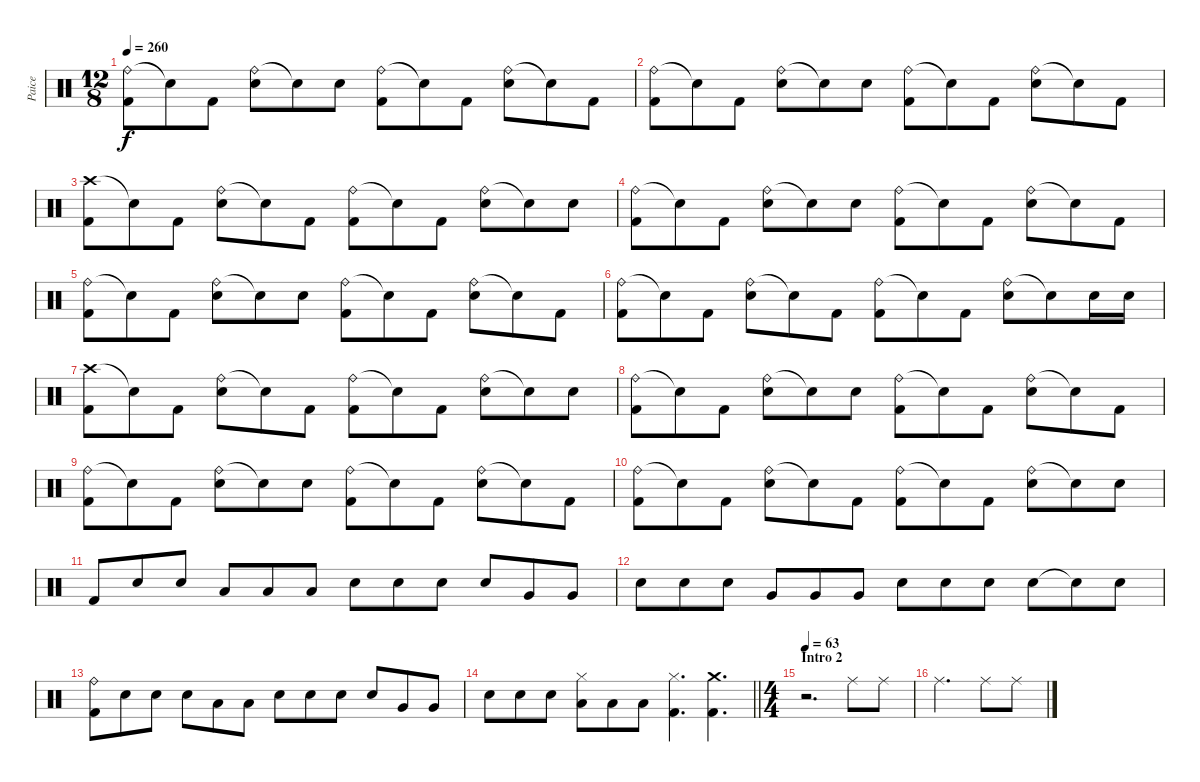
\track ("Paice" "Paice") {instrument percussion}
\staff {score}
\articulation defaults
\ts (12 8)
\tempo 260
\clef neutral
\ks c
("Ride (bell)" "Kick (hit) 2").8{dy f} "Snare (hit)"{t}.8 "Kick (hit) 2".8 ("Ride (bell)" "Electric Snare (hit)").8 "Snare (hit)"{t}.8 "Electric Snare (hit)".8 ("Ride (bell)" "Kick (hit) 2").8 "Snare (hit)"{t}.8 "Kick (hit) 2".8 ("Ride (bell)" "Electric Snare (hit)").8 "Snare (hit)"{t}.8 "Kick (hit) 2".8 |
("Ride (bell)" "Kick (hit) 2").8 "Snare (hit)"{t}.8 "Kick (hit) 2".8 ("Ride (bell)" "Electric Snare (hit)").8 "Snare (hit)"{t}.8 "Electric Snare (hit)".8 ("Ride (bell)" "Kick (hit) 2").8 "Snare (hit)"{t}.8 "Kick (hit) 2".8 ("Ride (bell)" "Electric Snare (hit)").8 "Snare (hit)"{t}.8 "Kick (hit) 2".8 |
("Crash high (hit)" "Kick (hit) 2").8 "Snare (hit)"{t}.8 "Kick (hit) 2".8 ("Ride (bell)" "Electric Snare (hit)").8 "Snare (hit)"{t}.8 "Kick (hit) 2".8 ("Ride (bell)" "Kick (hit) 2").8 "Snare (hit)"{t}.8 "Kick (hit) 2".8 ("Ride (bell)" "Electric Snare (hit)").8 "Snare (hit)"{t}.8 "Electric Snare (hit)".8 |
("Ride (bell)" "Kick (hit) 2").8 "Snare (hit)"{t}.8 "Kick (hit) 2".8 ("Ride (bell)" "Electric Snare (hit)").8 "Snare (hit)"{t}.8 "Electric Snare (hit)".8 ("Ride (bell)" "Kick (hit) 2").8 "Snare (hit)"{t}.8 "Kick (hit) 2".8 ("Ride (bell)" "Electric Snare (hit)").8 "Snare (hit)"{t}.8 "Kick (hit) 2".8 |
("Ride (bell)" "Kick (hit) 2").8 "Snare (hit)"{t}.8 "Kick (hit) 2".8 ("Ride (bell)" "Electric Snare (hit)").8 "Snare (hit)"{t}.8 "Electric Snare (hit)".8 ("Ride (bell)" "Kick (hit) 2").8 "Snare (hit)"{t}.8 "Kick (hit) 2".8 ("Ride (bell)" "Electric Snare (hit)").8 "Snare (hit)"{t}.8 "Kick (hit) 2".8 |
("Ride (bell)" "Kick (hit) 2").8 "Snare (hit)"{t}.8 "Kick (hit) 2".8 ("Ride (bell)" "Electric Snare (hit)").8 "Snare (hit)"{t}.8 "Kick (hit) 2".8 ("Ride (bell)" "Kick (hit) 2").8 "Snare (hit)"{t}.8 "Kick (hit) 2".8 ("Ride (bell)" "Electric Snare (hit)").8 "Snare (hit)"{t}.8 "Electric Snare (hit)".16 "Electric Snare (hit)".16 |
("Crash high (hit)" "Kick (hit) 2").8 "Snare (hit)"{t}.8 "Kick (hit) 2".8 ("Ride (bell)" "Electric Snare (hit)").8 "Snare (hit)"{t}.8 "Kick (hit) 2".8 ("Ride (bell)" "Kick (hit) 2").8 "Snare (hit)"{t}.8 "Kick (hit) 2".8 ("Ride (bell)" "Electric Snare (hit)").8 "Snare (hit)"{t}.8 "Electric Snare (hit)".8 |
("Ride (bell)" "Kick (hit) 2").8 "Snare (hit)"{t}.8 "Kick (hit) 2".8 ("Ride (bell)" "Electric Snare (hit)").8 "Snare (hit)"{t}.8 "Electric Snare (hit)".8 ("Ride (bell)" "Kick (hit) 2").8 "Snare (hit)"{t}.8 "Kick (hit) 2".8 ("Ride (bell)" "Electric Snare (hit)").8 "Snare (hit)"{t}.8 "Kick (hit) 2".8 |
("Ride (bell)" "Kick (hit) 2").8 "Snare (hit)"{t}.8 "Kick (hit) 2".8 ("Ride (bell)" "Electric Snare (hit)").8 "Snare (hit)"{t}.8 "Electric Snare (hit)".8 ("Ride (bell)" "Kick (hit) 2").8 "Snare (hit)"{t}.8 "Kick (hit) 2".8 ("Ride (bell)" "Electric Snare (hit)").8 "Snare (hit)"{t}.8 "Kick (hit) 2".8 |
("Ride (bell)" "Kick (hit) 2").8 "Snare (hit)"{t}.8 "Kick (hit) 2".8 ("Ride (bell)" "Electric Snare (hit)").8 "Snare (hit)"{t}.8 "Kick (hit) 2".8 ("Ride (bell)" "Kick (hit) 2").8 "Snare (hit)"{t}.8 "Kick (hit) 2".8 ("Ride (bell)" "Electric Snare (hit)").8 "Snare (hit)"{t}.8 "Electric Snare (hit)".8 |
"Kick (hit) 2".8 "Electric Snare (hit)".8 "Electric Snare (hit)".8 "Low Tom (hit)".8 "Low Tom (hit)".8 "Low Tom (hit)".8 "Electric Snare (hit)".8 "Electric Snare (hit)".8 "Electric Snare (hit)".8 "Electric Snare (hit)".8 "Very Low Tom (hit)".8 "Very Low Tom (hit)".8 |
"Electric Snare (hit)".8 "Electric Snare (hit)".8 "Electric Snare (hit)".8 "Very Low Tom (hit)".8 "Very Low Tom (hit)".8 "Very Low Tom (hit)".8 "Electric Snare (hit)".8 "Electric Snare (hit)".8 "Electric Snare (hit)".8 "Electric Snare (hit)".8 "Snare (hit)"{t}.8 "Electric Snare (hit)".8 |
("Ride (bell)" "Kick (hit) 2").8 "Electric Snare (hit)".8 "Electric Snare (hit)".8 "Electric Snare (hit)".8 "Low Tom (hit)".8 "Low Tom (hit)".8 "Electric Snare (hit)".8 "Electric Snare (hit)".8 "Electric Snare (hit)".8 "Electric Snare (hit)".8 "Very Low Tom (hit)".8 "Very Low Tom (hit)".8 |
\barLineRight lightlight "Electric Snare (hit)".8 "Electric Snare (hit)".8 "Electric Snare (hit)".8
("Hi-Hat (closed)" "Low Tom (hit)").8 "Low Tom (hit)".8 "Low Tom (hit)".8 ("Hi-Hat (closed)" "Kick (hit) 2").4{d} ("Crash medium (hit)" "Kick (hit) 2").4{d} |
\ts (4 4)
\section ("" "Intro 2")
\tempo 63
r.2{d} "Ride (middle)".8 "Ride (middle)".8 |
"Ride (middle)".2{d} "Ride (middle)".8 "Ride (middle)".8
